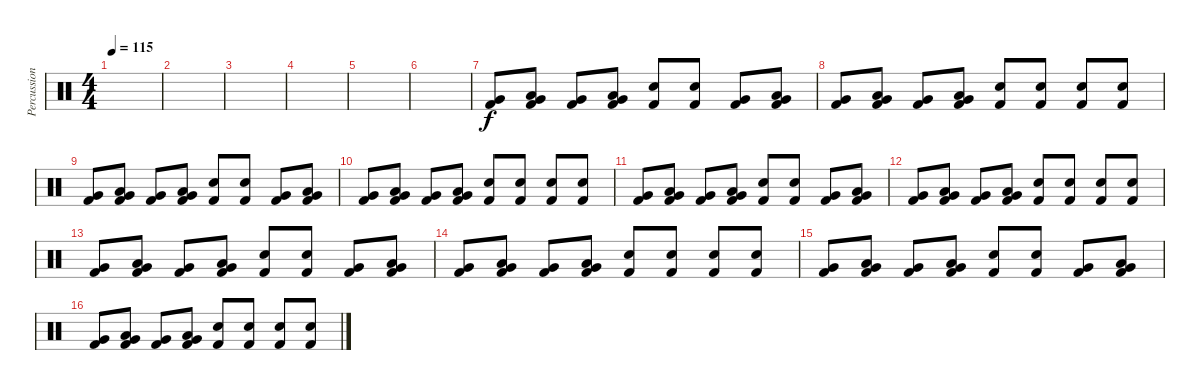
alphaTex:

\track ("Percussion" "Percussion") {instrument percussion}
\staff {score}
\articulation defaults
\ts (4 4)
\tempo 115
\clef neutral
\ks c
|
|
|
|
|
|
("Very Low Tom (hit)" "Kick (hit) 2").8 ("Low Tom (hit)" "Very Low Tom (hit)" "Kick (hit) 2").8 ("Very Low Tom (hit)" "Kick (hit) 2").8 ("Low Tom (hit)" "Very Low Tom (hit)" "Kick (hit) 2").8 ("Snare (hit) 2" "Kick (hit) 2").8 ("Snare (hit) 2" "Kick (hit) 2").8 ("Very Low Tom (hit)" "Kick (hit) 2").8 ("Low Tom (hit)" "Very Low Tom (hit)" "Kick (hit) 2").8 |
("Very Low Tom (hit)" "Kick (hit) 2").8 ("Low Tom (hit)" "Very Low Tom (hit)" "Kick (hit) 2").8 ("Very Low Tom (hit)" "Kick (hit) 2").8 ("Low Tom (hit)" "Very Low Tom (hit)" "Kick (hit) 2").8 ("Snare (hit) 2" "Kick (hit) 2").8 ("Snare (hit) 2" "Kick (hit) 2").8 ("Snare (hit) 2" "Kick (hit) 2").8 ("Snare (hit) 2" "Kick (hit) 2").8 |
("Very Low Tom (hit)" "Kick (hit) 2").8 ("Low Tom (hit)" "Very Low Tom (hit)" "Kick (hit) 2").8 ("Very Low Tom (hit)" "Kick (hit) 2").8 ("Low Tom (hit)" "Very Low Tom (hit)" "Kick (hit) 2").8 ("Snare (hit) 2" "Kick (hit) 2").8 ("Snare (hit) 2" "Kick (hit) 2").8 ("Very Low Tom (hit)" "Kick (hit) 2").8 ("Low Tom (hit)" "Very Low Tom (hit)" "Kick (hit) 2").8 |
("Very Low Tom (hit)" "Kick (hit) 2").8 ("Low Tom (hit)" "Very Low Tom (hit)" "Kick (hit) 2").8 ("Very Low Tom (hit)" "Kick (hit) 2").8 ("Low Tom (hit)" "Very Low Tom (hit)" "Kick (hit) 2").8 ("Snare (hit) 2" "Kick (hit) 2").8 ("Snare (hit) 2" "Kick (hit) 2").8 ("Snare (hit) 2" "Kick (hit) 2").8 ("Snare (hit) 2" "Kick (hit) 2").8 |
("Very Low Tom (hit)" "Kick (hit) 2").8 ("Low Tom (hit)" "Very Low Tom (hit)" "Kick (hit) 2").8 ("Very Low Tom (hit)" "Kick (hit) 2").8 ("Low Tom (hit)" "Very Low Tom (hit)" "Kick (hit) 2").8 ("Snare (hit) 2" "Kick (hit) 2").8 ("Snare (hit) 2" "Kick (hit) 2").8 ("Very Low Tom (hit)" "Kick (hit) 2").8 ("Low Tom (hit)" "Very Low Tom (hit)" "Kick (hit) 2").8 |
("Very Low Tom (hit)" "Kick (hit) 2").8 ("Low Tom (hit)" "Very Low Tom (hit)" "Kick (hit) 2").8 ("Very Low Tom (hit)" "Kick (hit) 2").8 ("Low Tom (hit)" "Very Low Tom (hit)" "Kick (hit) 2").8 ("Snare (hit) 2" "Kick (hit) 2").8 ("Snare (hit) 2" "Kick (hit) 2").8 ("Snare (hit) 2" "Kick (hit) 2").8 ("Snare (hit) 2" "Kick (hit) 2").8 |
("Very Low Tom (hit)" "Kick (hit) 2").8 ("Low Tom (hit)" "Very Low Tom (hit)" "Kick (hit) 2").8 ("Very Low Tom (hit)" "Kick (hit) 2").8 ("Low Tom (hit)" "Very Low Tom (hit)" "Kick (hit) 2").8 ("Snare (hit) 2" "Kick (hit) 2").8 ("Snare (hit) 2" "Kick (hit) 2").8 ("Very Low Tom (hit)" "Kick (hit) 2").8 ("Low Tom (hit)" "Very Low Tom (hit)" "Kick (hit) 2").8 |
("Very Low Tom (hit)" "Kick (hit) 2").8 ("Low Tom (hit)" "Very Low Tom (hit)" "Kick (hit) 2").8 ("Very Low Tom (hit)" "Kick (hit) 2").8 ("Low Tom (hit)" "Very Low Tom (hit)" "Kick (hit) 2").8 ("Snare (hit) 2" "Kick (hit) 2").8 ("Snare (hit) 2" "Kick (hit) 2").8 ("Snare (hit) 2" "Kick (hit) 2").8 ("Snare (hit) 2" "Kick (hit) 2").8 |
("Very Low Tom (hit)" "Kick (hit) 2").8 ("Low Tom (hit)" "Very Low Tom (hit)" "Kick (hit) 2").8 ("Very Low Tom (hit)" "Kick (hit) 2").8 ("Low Tom (hit)" "Very Low Tom (hit)" "Kick (hit) 2").8 ("Snare (hit) 2" "Kick (hit) 2").8 ("Snare (hit) 2" "Kick (hit) 2").8 ("Very Low Tom (hit)" "Kick (hit) 2").8 ("Low Tom (hit)" "Very Low Tom (hit)" "Kick (hit) 2").8 |
("Very Low Tom (hit)" "Kick (hit) 2").8 ("Low Tom (hit)" "Very Low Tom (hit)" "Kick (hit) 2").8 ("Very Low Tom (hit)" "Kick (hit) 2").8 ("Low Tom (hit)" "Very Low Tom (hit)" "Kick (hit) 2").8 ("Snare (hit) 2" "Kick (hit) 2").8 ("Snare (hit) 2" "Kick (hit) 2").8 ("Snare (hit) 2" "Kick (hit) 2").8 ("Snare (hit) 2" "Kick (hit) 2").8
